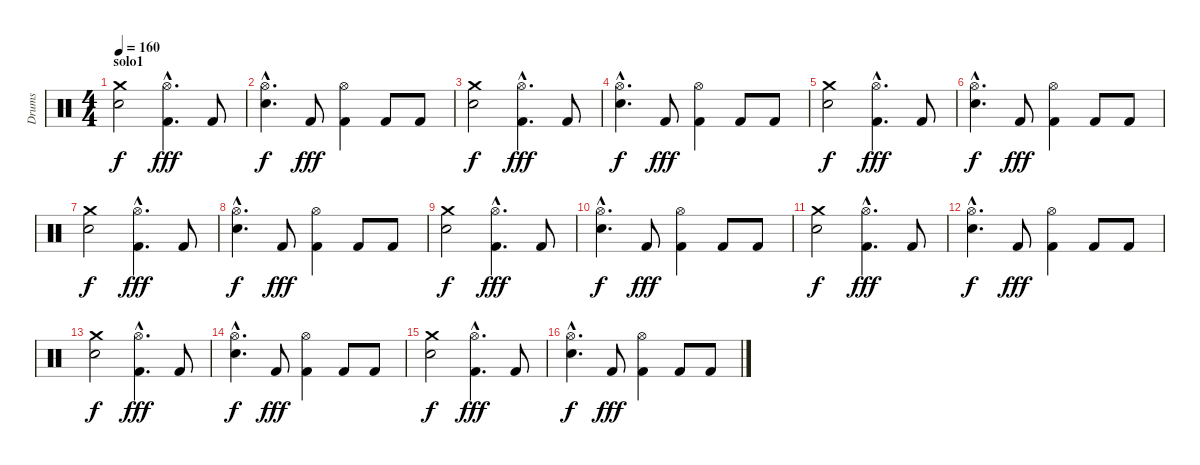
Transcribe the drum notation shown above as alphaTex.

\track ("Drums" "Drums") {instrument percussion}
\staff {score}
\articulation defaults
\ts (4 4)
\section ("" "solo1")
\tempo 160
\clef neutral
\ks c
("Crash medium (hit)" "Electric Snare (hit)").2{dy f} ("Hi-Hat (open)"{hac} "Kick (hit) 2"{hac}).4{d dy fff} "Kick (hit) 2".8 |
("Electric Snare (hit)"{hac} "Hi-Hat (open)"{hac}).4{d dy f} "Kick (hit) 2".8{dy fff} ("Hi-Hat (open)" "Kick (hit) 2").4 "Kick (hit) 2".8 "Kick (hit) 2".8 |
("Crash medium (hit)" "Electric Snare (hit)").2{dy f} ("Hi-Hat (open)"{hac} "Kick (hit) 2"{hac}).4{d dy fff} "Kick (hit) 2".8 |
("Electric Snare (hit)"{hac} "Hi-Hat (open)"{hac}).4{d dy f} "Kick (hit) 2".8{dy fff} ("Hi-Hat (open)" "Kick (hit) 2").4 "Kick (hit) 2".8 "Kick (hit) 2".8 |
("Crash medium (hit)" "Electric Snare (hit)").2{dy f} ("Hi-Hat (open)"{hac} "Kick (hit) 2"{hac}).4{d dy fff} "Kick (hit) 2".8 |
("Electric Snare (hit)"{hac} "Hi-Hat (open)"{hac}).4{d dy f} "Kick (hit) 2".8{dy fff} ("Hi-Hat (open)" "Kick (hit) 2").4 "Kick (hit) 2".8 "Kick (hit) 2".8 |
("Crash medium (hit)" "Electric Snare (hit)").2{dy f} ("Hi-Hat (open)"{hac} "Kick (hit) 2"{hac}).4{d dy fff} "Kick (hit) 2".8 |
("Electric Snare (hit)"{hac} "Hi-Hat (open)"{hac}).4{d dy f} "Kick (hit) 2".8{dy fff} ("Hi-Hat (open)" "Kick (hit) 2").4 "Kick (hit) 2".8 "Kick (hit) 2".8 |
("Crash medium (hit)" "Electric Snare (hit)").2{dy f} ("Hi-Hat (open)"{hac} "Kick (hit) 2"{hac}).4{d dy fff} "Kick (hit) 2".8 |
("Electric Snare (hit)"{hac} "Hi-Hat (open)"{hac}).4{d dy f} "Kick (hit) 2".8{dy fff} ("Hi-Hat (open)" "Kick (hit) 2").4 "Kick (hit) 2".8 "Kick (hit) 2".8 |
("Crash medium (hit)" "Electric Snare (hit)").2{dy f} ("Hi-Hat (open)"{hac} "Kick (hit) 2"{hac}).4{d dy fff} "Kick (hit) 2".8 |
("Electric Snare (hit)"{hac} "Hi-Hat (open)"{hac}).4{d dy f} "Kick (hit) 2".8{dy fff} ("Hi-Hat (open)" "Kick (hit) 2").4 "Kick (hit) 2".8 "Kick (hit) 2".8 |
("Crash medium (hit)" "Electric Snare (hit)").2{dy f} ("Hi-Hat (open)"{hac} "Kick (hit) 2"{hac}).4{d dy fff} "Kick (hit) 2".8 |
("Electric Snare (hit)"{hac} "Hi-Hat (open)"{hac}).4{d dy f} "Kick (hit) 2".8{dy fff} ("Hi-Hat (open)" "Kick (hit) 2").4 "Kick (hit) 2".8 "Kick (hit) 2".8 |
("Crash medium (hit)" "Electric Snare (hit)").2{dy f} ("Hi-Hat (open)"{hac} "Kick (hit) 2"{hac}).4{d dy fff} "Kick (hit) 2".8 |
("Electric Snare (hit)"{hac} "Hi-Hat (open)"{hac}).4{d dy f} "Kick (hit) 2".8{dy fff} ("Hi-Hat (open)" "Kick (hit) 2").4 "Kick (hit) 2".8 "Kick (hit) 2".8
